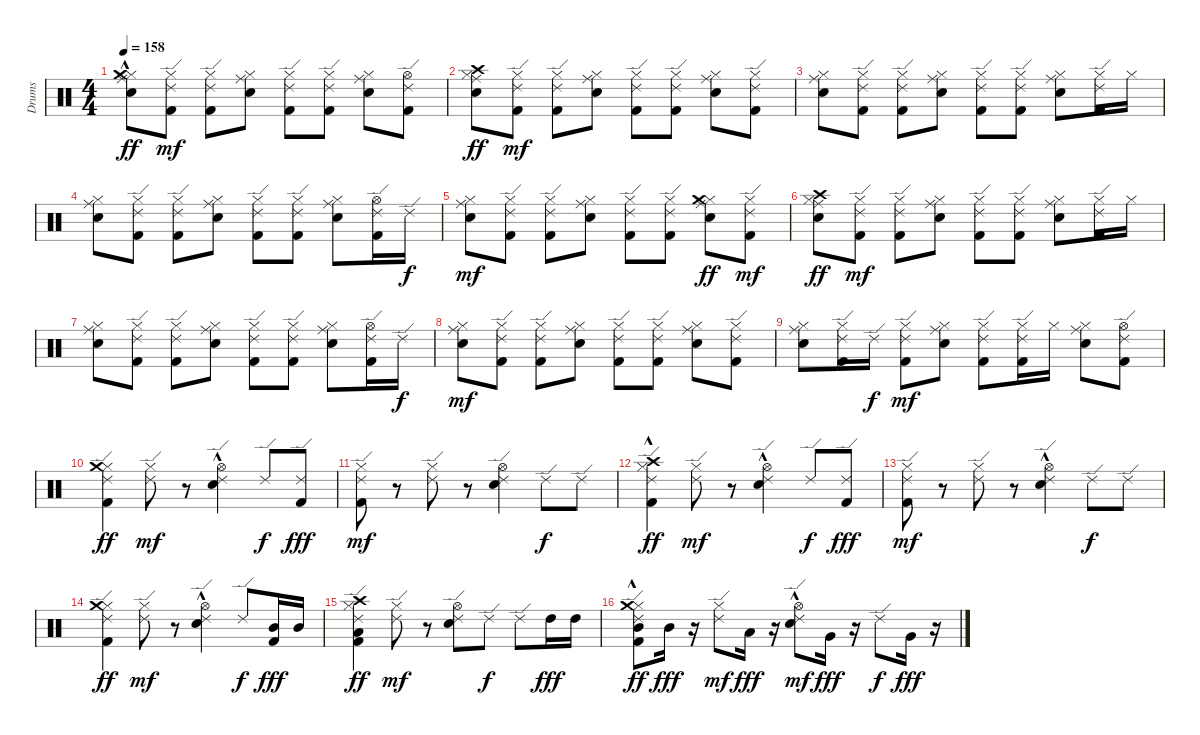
\track ("Drums" "Drums") {instrument percussion}
\staff {score}
\articulation defaults
\ts (4 4)
\tempo 158
\clef neutral
\ks c
("Snare (hit) 2" "Hi-Hat (closed)" "Ride (middle)" "Crash medium (hit)"{hac}).8{dy ff} ("Kick (hit) 2" "Hi-Hat (closed)" "Ride (edge) 2").8{dy mf} ("Kick (hit) 2" "Hi-Hat (closed)" "Ride (edge) 2").8 ("Snare (hit) 2" "Hi-Hat (closed)" "Ride (middle)").8 ("Kick (hit) 2" "Hi-Hat (closed)" "Ride (edge) 2").8 ("Kick (hit) 2" "Hi-Hat (closed)" "Ride (edge) 2").8 ("Snare (hit) 2" "Hi-Hat (closed)" "Ride (middle)").8 ("Kick (hit) 2" "Hi-Hat (open)" "Ride (edge) 2").8 |
("Snare (hit) 2" "Hi-Hat (closed)" "Ride (middle)" "Crash high (hit)").8{dy ff} ("Kick (hit) 2" "Hi-Hat (closed)" "Ride (edge) 2").8{dy mf} ("Kick (hit) 2" "Hi-Hat (closed)" "Ride (edge) 2").8 ("Snare (hit) 2" "Hi-Hat (closed)" "Ride (middle)").8 ("Kick (hit) 2" "Hi-Hat (closed)" "Ride (edge) 2").8 ("Kick (hit) 2" "Hi-Hat (closed)" "Ride (edge) 2").8 ("Snare (hit) 2" "Hi-Hat (closed)" "Ride (middle)").8 ("Kick (hit) 2" "Hi-Hat (closed)" "Ride (edge) 2").8 |
("Snare (hit) 2" "Hi-Hat (closed)" "Ride (middle)").8 ("Kick (hit) 2" "Hi-Hat (closed)" "Ride (edge) 2").8 ("Kick (hit) 2" "Hi-Hat (closed)" "Ride (edge) 2").8 ("Snare (hit) 2" "Hi-Hat (closed)" "Ride (middle)").8 ("Kick (hit) 2" "Hi-Hat (closed)" "Ride (edge) 2").8 ("Kick (hit) 2" "Hi-Hat (closed)" "Ride (edge) 2").8 ("Snare (hit) 2" "Hi-Hat (closed)" "Ride (middle)").8 ("Kick (hit) 2" "Hi-Hat (closed)" "Ride (edge) 2").16 "Hi-Hat (closed)".16 |
("Snare (hit) 2" "Hi-Hat (closed)" "Ride (middle)").8 ("Kick (hit) 2" "Hi-Hat (closed)" "Ride (edge) 2").8 ("Kick (hit) 2" "Hi-Hat (closed)" "Ride (edge) 2").8 ("Snare (hit) 2" "Hi-Hat (closed)" "Ride (middle)").8 ("Kick (hit) 2" "Hi-Hat (closed)" "Ride (edge) 2").8 ("Kick (hit) 2" "Hi-Hat (closed)" "Ride (edge) 2").8 ("Snare (hit) 2" "Hi-Hat (closed)" "Ride (middle)").8 ("Kick (hit) 2" "Hi-Hat (open)" "Ride (edge) 2").16 "Ride (edge) 2".16{dy f} |
("Snare (hit) 2" "Hi-Hat (closed)" "Ride (middle)").8{dy mf} ("Kick (hit) 2" "Hi-Hat (closed)" "Ride (edge) 2").8 ("Kick (hit) 2" "Hi-Hat (closed)" "Ride (edge) 2").8 ("Snare (hit) 2" "Hi-Hat (closed)" "Ride (middle)").8 ("Kick (hit) 2" "Hi-Hat (closed)" "Ride (edge) 2").8 ("Kick (hit) 2" "Hi-Hat (closed)" "Ride (edge) 2").8 ("Snare (hit) 2" "Hi-Hat (closed)" "Ride (middle)" "Crash medium (hit)").8{dy ff} ("Kick (hit) 2" "Hi-Hat (closed)" "Ride (edge) 2").8{dy mf} |
("Snare (hit) 2" "Hi-Hat (closed)" "Ride (middle)" "Crash high (hit)").8{dy ff} ("Kick (hit) 2" "Hi-Hat (closed)" "Ride (edge) 2").8{dy mf} ("Kick (hit) 2" "Hi-Hat (closed)" "Ride (edge) 2").8 ("Snare (hit) 2" "Hi-Hat (closed)" "Ride (middle)").8 ("Kick (hit) 2" "Hi-Hat (closed)" "Ride (edge) 2").8 ("Kick (hit) 2" "Hi-Hat (closed)" "Ride (edge) 2").8 ("Snare (hit) 2" "Hi-Hat (closed)" "Ride (middle)").8 ("Kick (hit) 2" "Hi-Hat (closed)" "Ride (edge) 2").16 "Hi-Hat (closed)".16 |
("Snare (hit) 2" "Hi-Hat (closed)" "Ride (middle)").8 ("Kick (hit) 2" "Hi-Hat (closed)" "Ride (edge) 2").8 ("Kick (hit) 2" "Hi-Hat (closed)" "Ride (edge) 2").8 ("Snare (hit) 2" "Hi-Hat (closed)" "Ride (middle)").8 ("Kick (hit) 2" "Hi-Hat (closed)" "Ride (edge) 2").8 ("Kick (hit) 2" "Hi-Hat (closed)" "Ride (edge) 2").8 ("Snare (hit) 2" "Hi-Hat (closed)" "Ride (middle)").8 ("Kick (hit) 2" "Hi-Hat (open)" "Ride (edge) 2").16 "Ride (edge) 2".16{dy f} |
("Snare (hit) 2" "Hi-Hat (closed)" "Ride (middle)").8{dy mf} ("Kick (hit) 2" "Hi-Hat (closed)" "Ride (edge) 2").8 ("Kick (hit) 2" "Hi-Hat (closed)" "Ride (edge) 2").8 ("Snare (hit) 2" "Hi-Hat (closed)" "Ride (middle)").8 ("Kick (hit) 2" "Hi-Hat (closed)" "Ride (edge) 2").8 ("Kick (hit) 2" "Hi-Hat (closed)" "Ride (edge) 2").8 ("Snare (hit) 2" "Hi-Hat (closed)" "Ride (middle)").8 ("Kick (hit) 2" "Hi-Hat (closed)" "Ride (edge) 2").8 |
("Snare (hit) 2" "Hi-Hat (closed)" "Ride (middle)").8 ("Kick (hit) 2" "Hi-Hat (closed)" "Ride (edge) 2").16 "Ride (edge) 2".16{dy f} ("Kick (hit) 2" "Hi-Hat (closed)" "Ride (edge) 2").8{dy mf} ("Snare (hit) 2" "Hi-Hat (closed)" "Ride (middle)").8 ("Kick (hit) 2" "Hi-Hat (closed)" "Ride (edge) 2").8 ("Kick (hit) 2" "Hi-Hat (closed)" "Ride (edge) 2").16 "Hi-Hat (closed)".16 ("Snare (hit) 2" "Hi-Hat (closed)" "Ride (middle)").8 ("Kick (hit) 2" "Hi-Hat (open)" "Ride (edge) 2").8 |
("Kick (hit) 2" "Hi-Hat (closed)" "Ride (edge) 2" "Crash medium (hit)").4{dy ff} ("Hi-Hat (closed)" "Ride (edge) 2").8{dy mf} r.8 ("Snare (hit) 2" "Hi-Hat (open)"{hac} "Ride (edge) 2").4 "Ride (edge) 2".8{dy f} ("Kick (hit) 2" "Ride (edge) 2").8{dy fff} |
("Kick (hit) 2" "Hi-Hat (closed)" "Ride (edge) 2").8{dy mf} r.8 ("Hi-Hat (closed)" "Ride (edge) 2").8 r.8 ("Snare (hit) 2" "Hi-Hat (open)" "Ride (edge) 2").4 "Ride (edge) 2".8{dy f} "Ride (edge) 2".8 |
("Kick (hit) 2" "Hi-Hat (closed)" "Ride (edge) 2" "Crash high (hit)"{hac}).4{dy ff} ("Hi-Hat (closed)" "Ride (edge) 2").8{dy mf} r.8 ("Snare (hit) 2" "Hi-Hat (open)"{hac} "Ride (edge) 2").4 "Ride (edge) 2".8{dy f} ("Kick (hit) 2" "Ride (edge) 2").8{dy fff} |
("Kick (hit) 2" "Hi-Hat (closed)" "Ride (edge) 2").8{dy mf} r.8 ("Hi-Hat (closed)" "Ride (edge) 2").8 r.8 ("Snare (hit) 2" "Hi-Hat (open)"{hac} "Ride (edge) 2").4 "Ride (edge) 2".8{dy f} "Ride (edge) 2".8 |
("Kick (hit) 2" "Hi-Hat (closed)" "Ride (edge) 2" "Crash medium (hit)").4{dy ff} ("Hi-Hat (closed)" "Ride (edge) 2").8{dy mf} r.8 ("Snare (hit) 2" "Hi-Hat (open)"{hac} "Ride (edge) 2").4 "Ride (edge) 2".8{dy f} ("Kick (hit) 2" "Mid Tom (hit)").16{dy fff} "Mid Tom (hit)".16 |
("Kick (hit) 2" "Hi-Hat (closed)" "Ride (edge) 2" "Low Tom (hit)" "Crash high (hit)").4{dy ff} ("Hi-Hat (closed)" "Ride (edge) 2").8{dy mf} r.8 ("Snare (hit) 2" "Hi-Hat (open)" "Ride (edge) 2").8 "Ride (edge) 2".8{dy f} "Ride (edge) 2".8 "High Tom (hit)".16{dy fff} "High Tom (hit)".16 |
("Kick (hit) 2" "Hi-Hat (closed)" "Ride (edge) 2" "Mid Tom (hit)" "Crash medium (hit)"{hac}).8{dy ff} "Mid Tom (hit)".16{dy fff} r.16 ("Hi-Hat (closed)" "Ride (edge) 2").8{dy mf} "Low Tom (hit)".16{dy fff} r.16 ("Snare (hit) 2" "Hi-Hat (open)"{hac} "Ride (edge) 2").8{dy mf} "Very Low Tom (hit)".16{dy fff} r.16 "Ride (edge) 2".8{dy f} "Very Low Tom (hit)".16{dy fff} r.16
